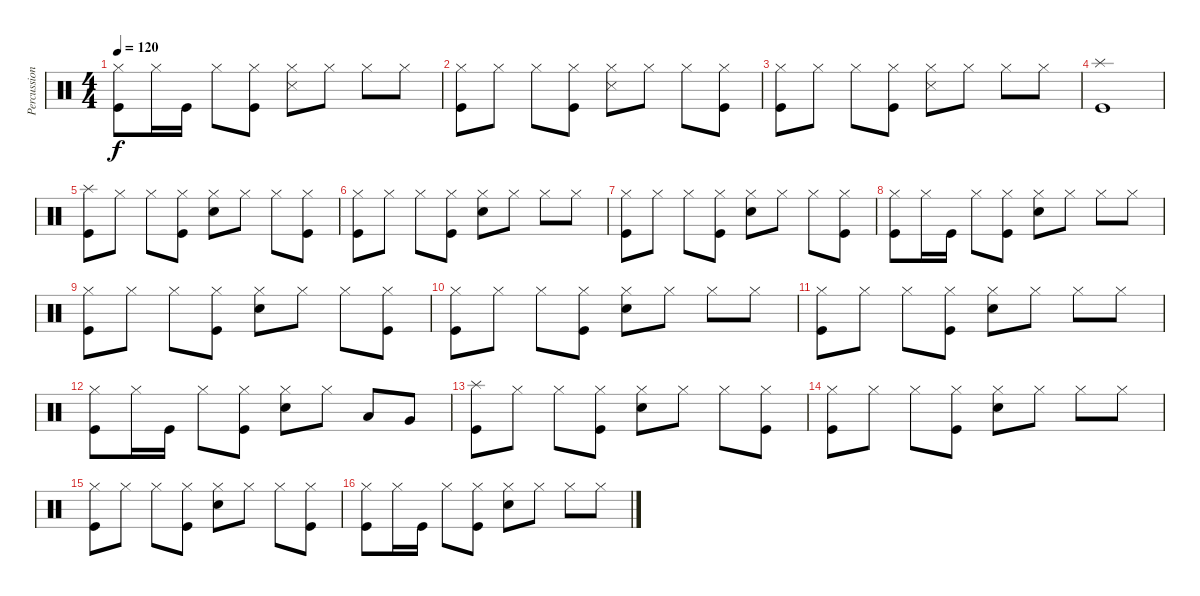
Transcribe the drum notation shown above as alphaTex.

\track ("Percussion" "Percussion") {instrument percussion}
\staff {score}
\articulation defaults
\ts (4 4)
\tempo 120
\clef neutral
\ks c
("Hi-Hat (closed)" "Kick (hit)").8{dy f} "Hi-Hat (closed)".16 "Kick (hit)".16 "Hi-Hat (closed)".8 ("Hi-Hat (closed)" "Kick (hit)").8 ("Hi-Hat (closed)" "Snare (side stick) 3").8 "Hi-Hat (closed)".8 "Hi-Hat (closed)".8 "Hi-Hat (closed)".8 |
("Hi-Hat (closed)" "Kick (hit)").8 "Hi-Hat (closed)".8 "Hi-Hat (closed)".8 ("Hi-Hat (closed)" "Kick (hit)").8 ("Hi-Hat (closed)" "Snare (side stick) 3").8 "Hi-Hat (closed)".8 "Hi-Hat (closed)".8 ("Hi-Hat (closed)" "Kick (hit)").8 |
("Hi-Hat (closed)" "Kick (hit)").8 "Hi-Hat (closed)".8 "Hi-Hat (closed)".8 ("Hi-Hat (closed)" "Kick (hit)").8 ("Hi-Hat (closed)" "Snare (side stick) 3").8 "Hi-Hat (closed)".8 "Hi-Hat (closed)".8 "Hi-Hat (closed)".8 |
("Splash (hit)" "Kick (hit)").1 |
("Splash (hit)" "Kick (hit)").8 "Hi-Hat (closed)".8 "Hi-Hat (closed)".8 ("Hi-Hat (closed)" "Kick (hit)").8 ("Hi-Hat (closed)" "Electric Snare (hit)").8 "Hi-Hat (closed)".8 "Hi-Hat (closed)".8 ("Hi-Hat (closed)" "Kick (hit)").8 |
("Hi-Hat (closed)" "Kick (hit)").8 "Hi-Hat (closed)".8 "Hi-Hat (closed)".8 ("Hi-Hat (closed)" "Kick (hit)").8 ("Hi-Hat (closed)" "Electric Snare (hit)").8 "Hi-Hat (closed)".8 "Hi-Hat (closed)".8 "Hi-Hat (closed)".8 |
("Hi-Hat (closed)" "Kick (hit)").8 "Hi-Hat (closed)".8 "Hi-Hat (closed)".8 ("Hi-Hat (closed)" "Kick (hit)").8 ("Hi-Hat (closed)" "Electric Snare (hit)").8 "Hi-Hat (closed)".8 "Hi-Hat (closed)".8 ("Hi-Hat (closed)" "Kick (hit)").8 |
("Hi-Hat (closed)" "Kick (hit)").8 "Hi-Hat (closed)".16 "Kick (hit)".16 "Hi-Hat (closed)".8 ("Hi-Hat (closed)" "Kick (hit)").8 ("Hi-Hat (closed)" "Electric Snare (hit)").8 "Hi-Hat (closed)".8 "Hi-Hat (closed)".8 "Hi-Hat (closed)".8 |
("Hi-Hat (closed)" "Kick (hit)").8 "Hi-Hat (closed)".8 "Hi-Hat (closed)".8 ("Hi-Hat (closed)" "Kick (hit)").8 ("Hi-Hat (closed)" "Electric Snare (hit)").8 "Hi-Hat (closed)".8 "Hi-Hat (closed)".8 ("Hi-Hat (closed)" "Kick (hit)").8 |
("Hi-Hat (closed)" "Kick (hit)").8 "Hi-Hat (closed)".8 "Hi-Hat (closed)".8 ("Hi-Hat (closed)" "Kick (hit)").8 ("Hi-Hat (closed)" "Electric Snare (hit)").8 "Hi-Hat (closed)".8 "Hi-Hat (closed)".8 "Hi-Hat (closed)".8 |
("Hi-Hat (closed)" "Kick (hit)").8 "Hi-Hat (closed)".8 "Hi-Hat (closed)".8 ("Hi-Hat (closed)" "Kick (hit)").8 ("Hi-Hat (closed)" "Electric Snare (hit)").8 "Hi-Hat (closed)".8 "Hi-Hat (closed)".8 "Hi-Hat (closed)".8 |
("Hi-Hat (closed)" "Kick (hit)").8 "Hi-Hat (closed)".16 "Kick (hit)".16 "Hi-Hat (closed)".8 ("Hi-Hat (closed)" "Kick (hit)").8 ("Hi-Hat (closed)" "Electric Snare (hit)").8 "Hi-Hat (closed)".8 "Low Tom (hit)".8 "Very Low Tom (hit)".8 |
("Splash (hit)" "Kick (hit)").8 "Hi-Hat (closed)".8 "Hi-Hat (closed)".8 ("Hi-Hat (closed)" "Kick (hit)").8 ("Hi-Hat (closed)" "Electric Snare (hit)").8 "Hi-Hat (closed)".8 "Hi-Hat (closed)".8 ("Hi-Hat (closed)" "Kick (hit)").8 |
("Hi-Hat (closed)" "Kick (hit)").8 "Hi-Hat (closed)".8 "Hi-Hat (closed)".8 ("Hi-Hat (closed)" "Kick (hit)").8 ("Hi-Hat (closed)" "Electric Snare (hit)").8 "Hi-Hat (closed)".8 "Hi-Hat (closed)".8 "Hi-Hat (closed)".8 |
("Hi-Hat (closed)" "Kick (hit)").8 "Hi-Hat (closed)".8 "Hi-Hat (closed)".8 ("Hi-Hat (closed)" "Kick (hit)").8 ("Hi-Hat (closed)" "Electric Snare (hit)").8 "Hi-Hat (closed)".8 "Hi-Hat (closed)".8 ("Hi-Hat (closed)" "Kick (hit)").8 |
("Hi-Hat (closed)" "Kick (hit)").8 "Hi-Hat (closed)".16 "Kick (hit)".16 "Hi-Hat (closed)".8 ("Hi-Hat (closed)" "Kick (hit)").8 ("Hi-Hat (closed)" "Electric Snare (hit)").8 "Hi-Hat (closed)".8 "Hi-Hat (closed)".8 "Hi-Hat (closed)".8
